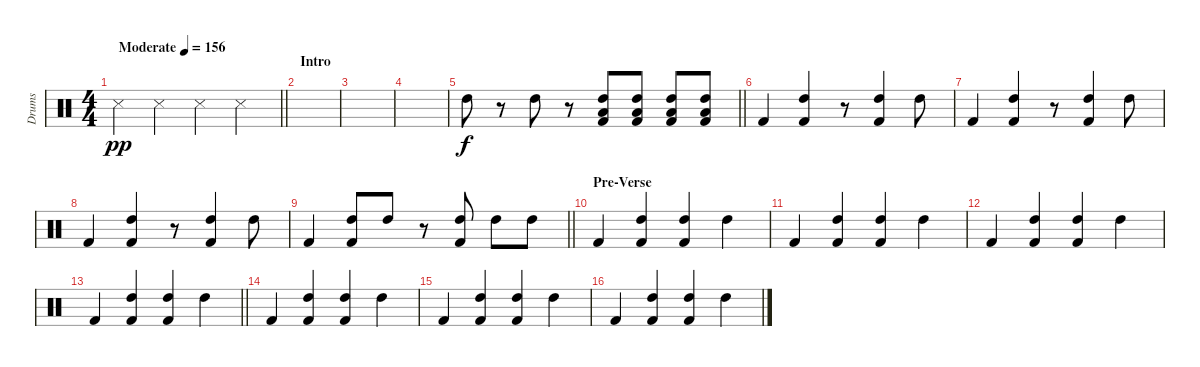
\track ("Drums" "Drums") {instrument percussion}
\staff
\articulation defaults
\ts (4 4)
\tempo (156 "Moderate")
\clef neutral
\barLineRight lightlight
\ks c "Metronome (hit)".4{dy pp} "Metronome (hit)".4 "Metronome (hit)".4 "Metronome (hit)".4
|
\section ("" "Intro")
|
|
|
\barLineRight lightlight "High Tom (hit)".8{dy f}
r.8 "High Tom (hit)".8 r.8 ("High Tom (hit)" "Low Floor Tom (hit)" "Kick (hit) 2").8 ("High Tom (hit)" "Low Floor Tom (hit)" "Kick (hit) 2").8 ("High Tom (hit)" "Low Floor Tom (hit)" "Kick (hit) 2").8 ("High Tom (hit)" "Low Floor Tom (hit)" "Kick (hit) 2").8 |
"Kick (hit) 2".4 ("High Tom (hit)" "Kick (hit) 2").4 r.8 ("High Tom (hit)" "Kick (hit) 2").4 "High Tom (hit)".8 |
"Kick (hit) 2".4 ("High Tom (hit)" "Kick (hit) 2").4 r.8 ("High Tom (hit)" "Kick (hit) 2").4 "High Tom (hit)".8 |
"Kick (hit) 2".4 ("High Tom (hit)" "Kick (hit) 2").4 r.8 ("High Tom (hit)" "Kick (hit) 2").4 "High Tom (hit)".8 |
\barLineRight lightlight "Kick (hit) 2".4
("High Tom (hit)" "Kick (hit) 2").8 "High Tom (hit)".8 r.8 ("High Tom (hit)" "Kick (hit) 2").8 "High Tom (hit)".8 "High Tom (hit)".8 |
\section ("" "Pre-Verse")
"Kick (hit) 2".4 ("High Tom (hit)" "Kick (hit) 2").4 ("High Tom (hit)" "Kick (hit) 2").4 "High Tom (hit)".4 |
"Kick (hit) 2".4 ("High Tom (hit)" "Kick (hit) 2").4 ("High Tom (hit)" "Kick (hit) 2").4 "High Tom (hit)".4 |
"Kick (hit) 2".4 ("High Tom (hit)" "Kick (hit) 2").4 ("High Tom (hit)" "Kick (hit) 2").4 "High Tom (hit)".4 |
\barLineRight lightlight "Kick (hit) 2".4
("High Tom (hit)" "Kick (hit) 2").4 ("High Tom (hit)" "Kick (hit) 2").4 "High Tom (hit)".4 |
"Kick (hit) 2".4 ("High Tom (hit)" "Kick (hit) 2").4 ("High Tom (hit)" "Kick (hit) 2").4 "High Tom (hit)".4 |
"Kick (hit) 2".4 ("High Tom (hit)" "Kick (hit) 2").4 ("High Tom (hit)" "Kick (hit) 2").4 "High Tom (hit)".4 |
"Kick (hit) 2".4 ("High Tom (hit)" "Kick (hit) 2").4 ("High Tom (hit)" "Kick (hit) 2").4 "High Tom (hit)".4
